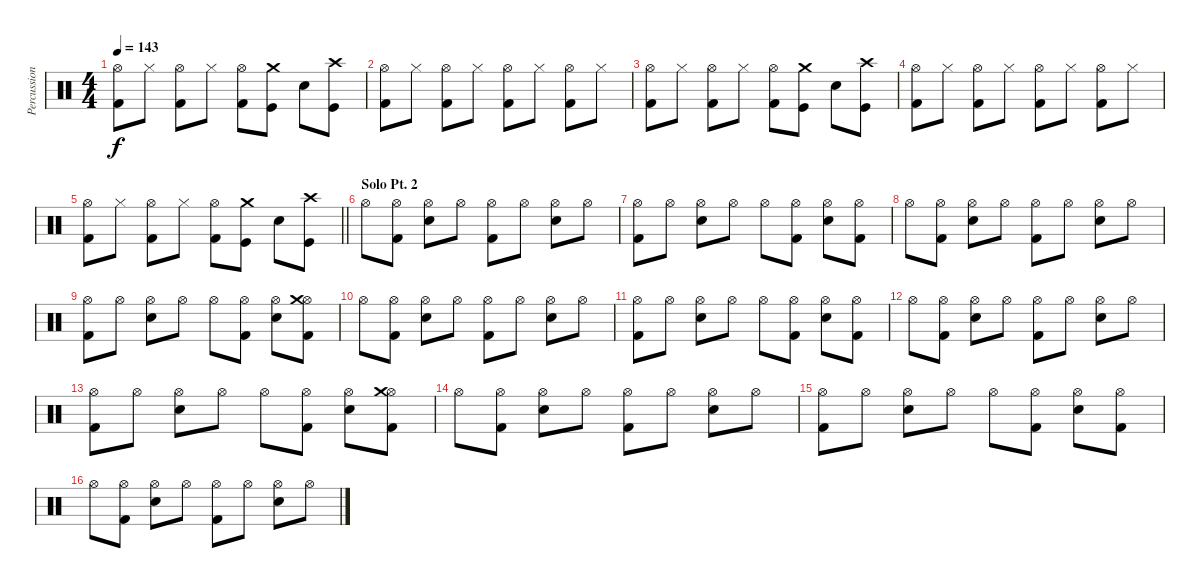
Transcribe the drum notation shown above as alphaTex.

\track ("Percussion" "Percussion") {instrument percussion}
\staff {score}
\articulation defaults
\ts (4 4)
\tempo 143
\clef neutral
\ks c
("Hi-Hat (open)" "Kick (hit) 2").8{dy f} "Hi-Hat (closed)".8 ("Hi-Hat (open)" "Kick (hit) 2").8 "Hi-Hat (closed)".8 ("Hi-Hat (open)" "Kick (hit) 2").8 ("Crash medium (hit)" "Kick (hit)").8 "Snare (hit) 2".8 ("Crash high (hit)" "Kick (hit)").8 |
("Hi-Hat (open)" "Kick (hit) 2").8 "Hi-Hat (closed)".8 ("Hi-Hat (open)" "Kick (hit) 2").8 "Hi-Hat (closed)".8 ("Hi-Hat (open)" "Kick (hit) 2").8 "Hi-Hat (closed)".8 ("Hi-Hat (open)" "Kick (hit) 2").8 "Hi-Hat (closed)".8 |
("Hi-Hat (open)" "Kick (hit) 2").8 "Hi-Hat (closed)".8 ("Hi-Hat (open)" "Kick (hit) 2").8 "Hi-Hat (closed)".8 ("Hi-Hat (open)" "Kick (hit) 2").8 ("Crash medium (hit)" "Kick (hit)").8 "Snare (hit) 2".8 ("Crash high (hit)" "Kick (hit)").8 |
("Hi-Hat (open)" "Kick (hit) 2").8 "Hi-Hat (closed)".8 ("Hi-Hat (open)" "Kick (hit) 2").8 "Hi-Hat (closed)".8 ("Hi-Hat (open)" "Kick (hit) 2").8 "Hi-Hat (closed)".8 ("Hi-Hat (open)" "Kick (hit) 2").8 "Hi-Hat (closed)".8 |
\barLineRight lightlight
("Hi-Hat (open)" "Kick (hit) 2").8 "Hi-Hat (closed)".8 ("Hi-Hat (open)" "Kick (hit) 2").8 "Hi-Hat (closed)".8 ("Hi-Hat (open)" "Kick (hit) 2").8 ("Crash medium (hit)" "Kick (hit)").8 "Snare (hit) 2".8 ("Crash high (hit)" "Kick (hit)").8 |
\section ("" "Solo Pt. 2")
"Hi-Hat (open)".8 ("Hi-Hat (open)" "Kick (hit) 2").8 ("Hi-Hat (open)" "Snare (hit) 2").8 "Hi-Hat (open)".8 ("Hi-Hat (open)" "Kick (hit) 2").8 "Hi-Hat (open)".8 ("Hi-Hat (open)" "Snare (hit) 2").8 "Hi-Hat (open)".8 |
("Hi-Hat (open)" "Kick (hit) 2").8 "Hi-Hat (open)".8 ("Hi-Hat (open)" "Snare (hit) 2").8 "Hi-Hat (open)".8 "Hi-Hat (open)".8 ("Hi-Hat (open)" "Kick (hit) 2").8 ("Hi-Hat (open)" "Snare (hit) 2").8 ("Hi-Hat (open)" "Kick (hit) 2").8 |
"Hi-Hat (open)".8 ("Hi-Hat (open)" "Kick (hit) 2").8 ("Hi-Hat (open)" "Snare (hit) 2").8 "Hi-Hat (open)".8 ("Hi-Hat (open)" "Kick (hit) 2").8 "Hi-Hat (open)".8 ("Hi-Hat (open)" "Snare (hit) 2").8 "Hi-Hat (open)".8 |
("Hi-Hat (open)" "Kick (hit) 2").8 "Hi-Hat (open)".8 ("Hi-Hat (open)" "Snare (hit) 2").8 "Hi-Hat (open)".8 "Hi-Hat (open)".8 ("Hi-Hat (open)" "Kick (hit) 2").8 ("Hi-Hat (open)" "Snare (hit) 2").8 ("Hi-Hat (open)" "Crash medium (hit)" "Kick (hit) 2").8 |
"Hi-Hat (open)".8 ("Hi-Hat (open)" "Kick (hit) 2").8 ("Hi-Hat (open)" "Snare (hit) 2").8 "Hi-Hat (open)".8 ("Hi-Hat (open)" "Kick (hit) 2").8 "Hi-Hat (open)".8 ("Hi-Hat (open)" "Snare (hit) 2").8 "Hi-Hat (open)".8 |
("Hi-Hat (open)" "Kick (hit) 2").8 "Hi-Hat (open)".8 ("Hi-Hat (open)" "Snare (hit) 2").8 "Hi-Hat (open)".8 "Hi-Hat (open)".8 ("Hi-Hat (open)" "Kick (hit) 2").8 ("Hi-Hat (open)" "Snare (hit) 2").8 ("Hi-Hat (open)" "Kick (hit) 2").8 |
"Hi-Hat (open)".8 ("Hi-Hat (open)" "Kick (hit) 2").8 ("Hi-Hat (open)" "Snare (hit) 2").8 "Hi-Hat (open)".8 ("Hi-Hat (open)" "Kick (hit) 2").8 "Hi-Hat (open)".8 ("Hi-Hat (open)" "Snare (hit) 2").8 "Hi-Hat (open)".8 |
("Hi-Hat (open)" "Kick (hit) 2").8 "Hi-Hat (open)".8 ("Hi-Hat (open)" "Snare (hit) 2").8 "Hi-Hat (open)".8 "Hi-Hat (open)".8 ("Hi-Hat (open)" "Kick (hit) 2").8 ("Hi-Hat (open)" "Snare (hit) 2").8 ("Hi-Hat (open)" "Crash medium (hit)" "Kick (hit) 2").8 |
"Hi-Hat (open)".8 ("Hi-Hat (open)" "Kick (hit) 2").8 ("Hi-Hat (open)" "Snare (hit) 2").8 "Hi-Hat (open)".8 ("Hi-Hat (open)" "Kick (hit) 2").8 "Hi-Hat (open)".8 ("Hi-Hat (open)" "Snare (hit) 2").8 "Hi-Hat (open)".8 |
("Hi-Hat (open)" "Kick (hit) 2").8 "Hi-Hat (open)".8 ("Hi-Hat (open)" "Snare (hit) 2").8 "Hi-Hat (open)".8 "Hi-Hat (open)".8 ("Hi-Hat (open)" "Kick (hit) 2").8 ("Hi-Hat (open)" "Snare (hit) 2").8 ("Hi-Hat (open)" "Kick (hit) 2").8 |
"Hi-Hat (open)".8 ("Hi-Hat (open)" "Kick (hit) 2").8 ("Hi-Hat (open)" "Snare (hit) 2").8 "Hi-Hat (open)".8 ("Hi-Hat (open)" "Kick (hit) 2").8 "Hi-Hat (open)".8 ("Hi-Hat (open)" "Snare (hit) 2").8 "Hi-Hat (open)".8
